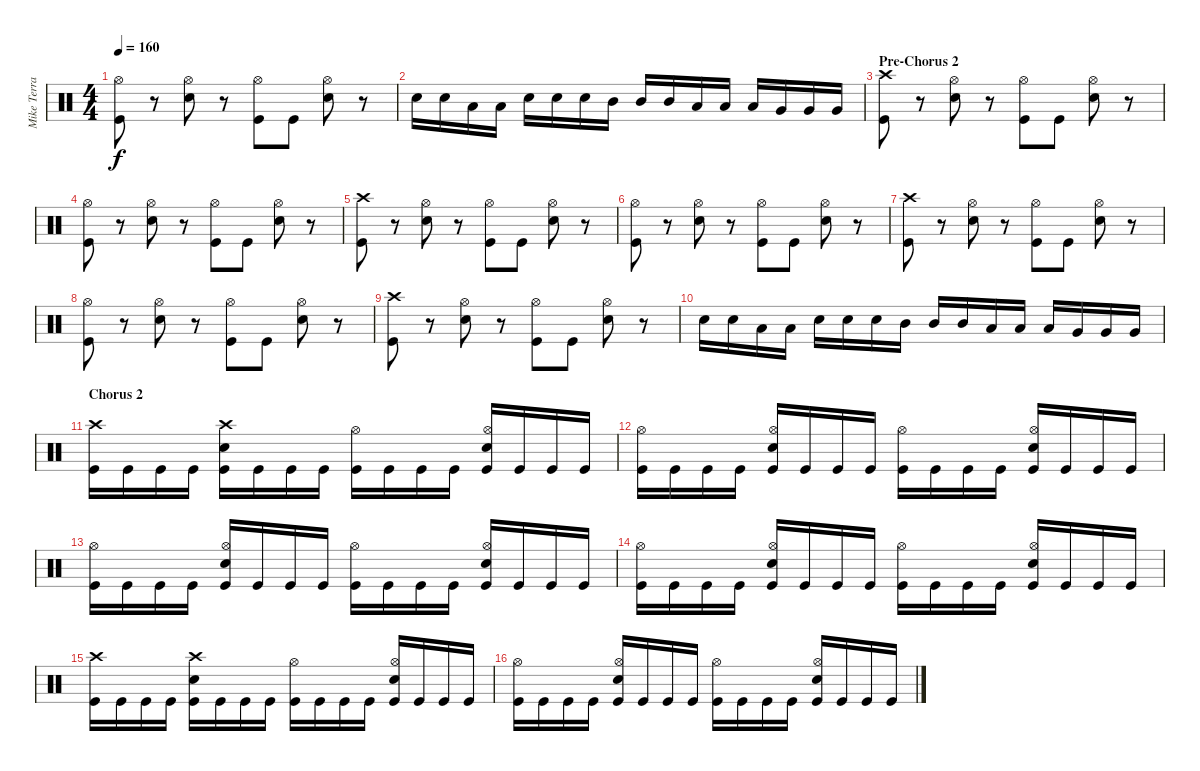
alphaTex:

\track ("Mike Terrana - Drums" "Mike Terra") {instrument percussion}
\staff {score}
\articulation defaults
\ts (4 4)
\tempo 160
\clef neutral
\ks c
("Kick (hit)" "Hi-Hat (open)").8{dy f} r.8 ("Electric Snare (hit)" "Hi-Hat (open)").8 r.8 ("Kick (hit)" "Hi-Hat (open)").8 "Kick (hit)".8 ("Electric Snare (hit)" "Hi-Hat (open)").8 r.8 |
"Electric Snare (hit)".16 "Electric Snare (hit)".16 "Low Tom (hit)".16 "Low Tom (hit)".16 "Electric Snare (hit)".16 "Electric Snare (hit)".16 "Electric Snare (hit)".16 "Mid Tom (hit)".16 "Mid Tom (hit)".16 "Mid Tom (hit)".16 "Low Tom (hit)".16 "Low Tom (hit)".16 "Low Tom (hit)".16 "Very Low Tom (hit)".16 "Very Low Tom (hit)".16 "Very Low Tom (hit)".16 |
\section ("" "Pre-Chorus 2")
("Kick (hit)" "Crash high (hit)").8 r.8 ("Electric Snare (hit)" "Hi-Hat (open)").8 r.8 ("Kick (hit)" "Hi-Hat (open)").8 "Kick (hit)".8 ("Electric Snare (hit)" "Hi-Hat (open)").8 r.8 |
("Kick (hit)" "Hi-Hat (open)").8 r.8 ("Electric Snare (hit)" "Hi-Hat (open)").8 r.8 ("Kick (hit)" "Hi-Hat (open)").8 "Kick (hit)".8 ("Electric Snare (hit)" "Hi-Hat (open)").8 r.8 |
("Kick (hit)" "Crash high (hit)").8 r.8 ("Electric Snare (hit)" "Hi-Hat (open)").8 r.8 ("Kick (hit)" "Hi-Hat (open)").8 "Kick (hit)".8 ("Electric Snare (hit)" "Hi-Hat (open)").8 r.8 |
("Kick (hit)" "Hi-Hat (open)").8 r.8 ("Electric Snare (hit)" "Hi-Hat (open)").8 r.8 ("Kick (hit)" "Hi-Hat (open)").8 "Kick (hit)".8 ("Electric Snare (hit)" "Hi-Hat (open)").8 r.8 |
("Kick (hit)" "Crash high (hit)").8 r.8 ("Electric Snare (hit)" "Hi-Hat (open)").8 r.8 ("Kick (hit)" "Hi-Hat (open)").8 "Kick (hit)".8 ("Electric Snare (hit)" "Hi-Hat (open)").8 r.8 |
("Kick (hit)" "Hi-Hat (open)").8 r.8 ("Electric Snare (hit)" "Hi-Hat (open)").8 r.8 ("Kick (hit)" "Hi-Hat (open)").8 "Kick (hit)".8 ("Electric Snare (hit)" "Hi-Hat (open)").8 r.8 |
("Kick (hit)" "Crash high (hit)").8 r.8 ("Electric Snare (hit)" "Hi-Hat (open)").8 r.8 ("Kick (hit)" "Hi-Hat (open)").8 "Kick (hit)".8 ("Electric Snare (hit)" "Hi-Hat (open)").8 r.8 |
"Electric Snare (hit)".16 "Electric Snare (hit)".16 "Low Tom (hit)".16 "Low Tom (hit)".16 "Electric Snare (hit)".16 "Electric Snare (hit)".16 "Electric Snare (hit)".16 "Mid Tom (hit)".16 "Mid Tom (hit)".16 "Mid Tom (hit)".16 "Low Tom (hit)".16 "Low Tom (hit)".16 "Low Tom (hit)".16 "Very Low Tom (hit)".16 "Very Low Tom (hit)".16 "Very Low Tom (hit)".16 |
\section ("" "Chorus 2")
("Kick (hit)" "Crash high (hit)").16 "Kick (hit)".16 "Kick (hit)".16 "Kick (hit)".16 ("Kick (hit)" "Electric Snare (hit)" "Crash high (hit)").16 "Kick (hit)".16 "Kick (hit)".16 "Kick (hit)".16 ("Kick (hit)" "Hi-Hat (open)").16 "Kick (hit)".16 "Kick (hit)".16 "Kick (hit)".16 ("Kick (hit)" "Electric Snare (hit)" "Hi-Hat (open)").16 "Kick (hit)".16 "Kick (hit)".16 "Kick (hit)".16 |
("Kick (hit)" "Hi-Hat (open)").16 "Kick (hit)".16 "Kick (hit)".16 "Kick (hit)".16 ("Kick (hit)" "Electric Snare (hit)" "Hi-Hat (open)").16 "Kick (hit)".16 "Kick (hit)".16 "Kick (hit)".16 ("Kick (hit)" "Hi-Hat (open)").16 "Kick (hit)".16 "Kick (hit)".16 "Kick (hit)".16 ("Kick (hit)" "Electric Snare (hit)" "Hi-Hat (open)").16 "Kick (hit)".16 "Kick (hit)".16 "Kick (hit)".16 |
("Kick (hit)" "Hi-Hat (open)").16 "Kick (hit)".16 "Kick (hit)".16 "Kick (hit)".16 ("Kick (hit)" "Electric Snare (hit)" "Hi-Hat (open)").16 "Kick (hit)".16 "Kick (hit)".16 "Kick (hit)".16 ("Kick (hit)" "Hi-Hat (open)").16 "Kick (hit)".16 "Kick (hit)".16 "Kick (hit)".16 ("Kick (hit)" "Electric Snare (hit)" "Hi-Hat (open)").16 "Kick (hit)".16 "Kick (hit)".16 "Kick (hit)".16 |
("Kick (hit)" "Hi-Hat (open)").16 "Kick (hit)".16 "Kick (hit)".16 "Kick (hit)".16 ("Kick (hit)" "Electric Snare (hit)" "Hi-Hat (open)").16 "Kick (hit)".16 "Kick (hit)".16 "Kick (hit)".16 ("Kick (hit)" "Hi-Hat (open)").16 "Kick (hit)".16 "Kick (hit)".16 "Kick (hit)".16 ("Kick (hit)" "Electric Snare (hit)" "Hi-Hat (open)").16 "Kick (hit)".16 "Kick (hit)".16 "Kick (hit)".16 |
("Kick (hit)" "Crash high (hit)").16 "Kick (hit)".16 "Kick (hit)".16 "Kick (hit)".16 ("Kick (hit)" "Electric Snare (hit)" "Crash high (hit)").16 "Kick (hit)".16 "Kick (hit)".16 "Kick (hit)".16 ("Kick (hit)" "Hi-Hat (open)").16 "Kick (hit)".16 "Kick (hit)".16 "Kick (hit)".16 ("Kick (hit)" "Electric Snare (hit)" "Hi-Hat (open)").16 "Kick (hit)".16 "Kick (hit)".16 "Kick (hit)".16 |
("Kick (hit)" "Hi-Hat (open)").16 "Kick (hit)".16 "Kick (hit)".16 "Kick (hit)".16 ("Kick (hit)" "Electric Snare (hit)" "Hi-Hat (open)").16 "Kick (hit)".16 "Kick (hit)".16 "Kick (hit)".16 ("Kick (hit)" "Hi-Hat (open)").16 "Kick (hit)".16 "Kick (hit)".16 "Kick (hit)".16 ("Kick (hit)" "Electric Snare (hit)" "Hi-Hat (open)").16 "Kick (hit)".16 "Kick (hit)".16 "Kick (hit)".16
